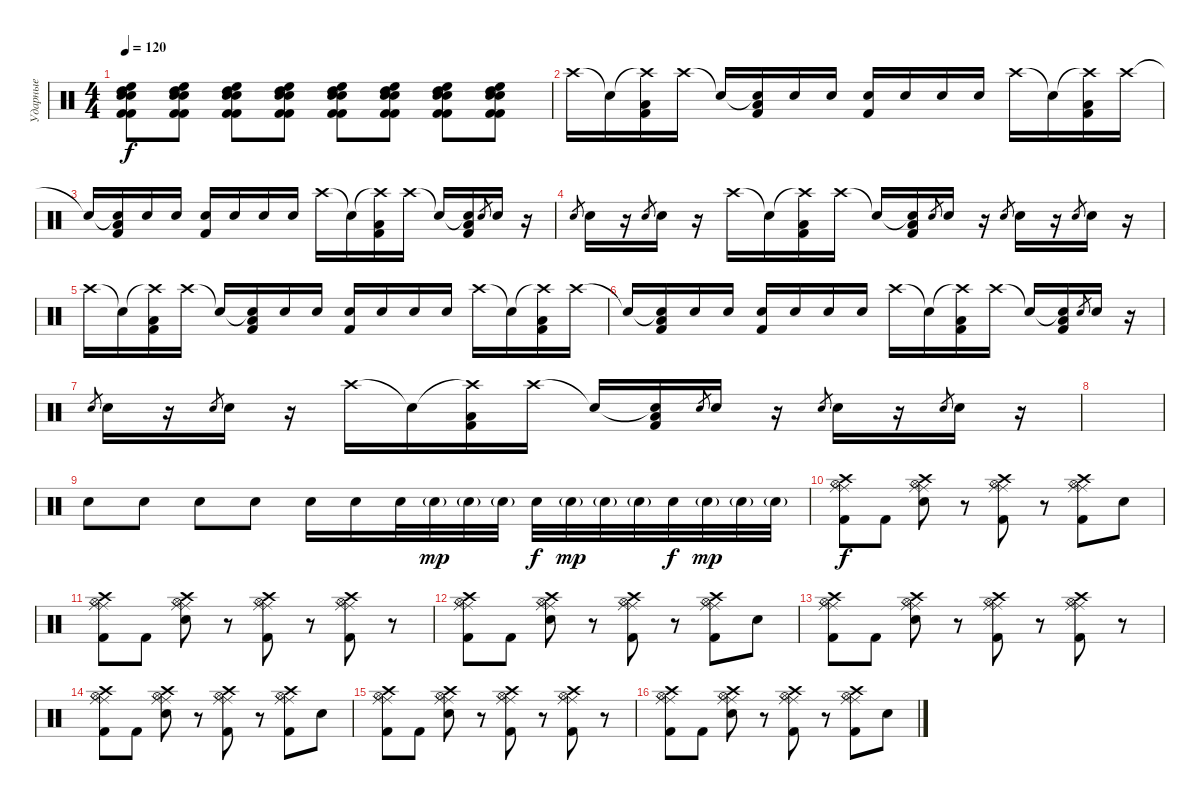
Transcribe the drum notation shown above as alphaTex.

\track ("Ударные" "Ударные") {instrument percussion}
\staff {score}
\articulation defaults
\ts (4 4)
\tempo 120
\clef neutral
\ks c
("Kick (hit) 2" "Kick (hit) 2" "Electric Snare (hit)" "Electric Snare (hit)" "High Tom (hit)" "High Floor Tom (hit)").8{dy f} ("Kick (hit) 2" "Kick (hit) 2" "Electric Snare (hit)" "Electric Snare (hit)" "High Tom (hit)" "High Floor Tom (hit)").8 ("Kick (hit) 2" "Kick (hit) 2" "Electric Snare (hit)" "Electric Snare (hit)" "High Tom (hit)" "High Floor Tom (hit)").8 ("Kick (hit) 2" "Kick (hit) 2" "Electric Snare (hit)" "Electric Snare (hit)" "High Tom (hit)" "High Floor Tom (hit)").8 ("Kick (hit) 2" "Kick (hit) 2" "Electric Snare (hit)" "Electric Snare (hit)" "High Tom (hit)" "High Floor Tom (hit)").8 ("Kick (hit) 2" "Kick (hit) 2" "Electric Snare (hit)" "Electric Snare (hit)" "High Tom (hit)" "High Floor Tom (hit)").8 ("Kick (hit) 2" "Kick (hit) 2" "Electric Snare (hit)" "Electric Snare (hit)" "High Tom (hit)" "High Floor Tom (hit)").8 ("Kick (hit) 2" "Kick (hit) 2" "Electric Snare (hit)" "Electric Snare (hit)" "High Tom (hit)" "High Floor Tom (hit)").8 |
"Crash high (hit)".16 "Snare (hit)"{t}.16 ("Crash high (hit)"{t} "Low Floor Tom (hit)" "Kick (hit) 2").16 "Crash high (hit)".16 "Snare (hit)"{t}.16 ("Snare (hit)"{t} "Low Floor Tom (hit)" "Kick (hit) 2").16 "Electric Snare (hit)".16 "Electric Snare (hit)".16 ("Electric Snare (hit)" "Kick (hit) 2").16 "Electric Snare (hit)".16 "Electric Snare (hit)".16 "Electric Snare (hit)".16 "Crash high (hit)".16 "Snare (hit)"{t}.16 ("Crash high (hit)"{t} "Low Floor Tom (hit)" "Kick (hit) 2").16 "Crash high (hit)".16 |
"Snare (hit)"{t}.16 ("Snare (hit)"{t} "Low Floor Tom (hit)" "Kick (hit) 2").16 "Electric Snare (hit)".16 "Electric Snare (hit)".16 ("Electric Snare (hit)" "Kick (hit) 2").16 "Electric Snare (hit)".16 "Electric Snare (hit)".16 "Electric Snare (hit)".16 "Crash high (hit)".16 "Snare (hit)"{t}.16 ("Crash high (hit)"{t} "Low Floor Tom (hit)" "Kick (hit) 2").16 "Crash high (hit)".16 "Snare (hit)"{t}.16 ("Snare (hit)"{t} "Low Floor Tom (hit)" "Kick (hit) 2").16 "Electric Snare (hit)".8{gr} "Electric Snare (hit)".16 r.16 |
"Electric Snare (hit)".8{gr} "Electric Snare (hit)".16 r.16 "Electric Snare (hit)".8{gr} "Electric Snare (hit)".16 r.16 "Crash high (hit)".16 "Snare (hit)"{t}.16 ("Crash high (hit)"{t} "Low Floor Tom (hit)" "Kick (hit) 2").16 "Crash high (hit)".16 "Snare (hit)"{t}.16 ("Snare (hit)"{t} "Low Floor Tom (hit)" "Kick (hit) 2").16 "Electric Snare (hit)".8{gr} "Electric Snare (hit)".16 r.16 "Electric Snare (hit)".8{gr} "Electric Snare (hit)".16 r.16 "Electric Snare (hit)".8{gr} "Electric Snare (hit)".16 r.16 |
"Crash high (hit)".16 "Snare (hit)"{t}.16 ("Crash high (hit)"{t} "Low Floor Tom (hit)" "Kick (hit) 2").16 "Crash high (hit)".16 "Snare (hit)"{t}.16 ("Snare (hit)"{t} "Low Floor Tom (hit)" "Kick (hit) 2").16 "Electric Snare (hit)".16 "Electric Snare (hit)".16 ("Electric Snare (hit)" "Kick (hit) 2").16 "Electric Snare (hit)".16 "Electric Snare (hit)".16 "Electric Snare (hit)".16 "Crash high (hit)".16 "Snare (hit)"{t}.16 ("Crash high (hit)"{t} "Low Floor Tom (hit)" "Kick (hit) 2").16 "Crash high (hit)".16 |
"Snare (hit)"{t}.16 ("Snare (hit)"{t} "Low Floor Tom (hit)" "Kick (hit) 2").16 "Electric Snare (hit)".16 "Electric Snare (hit)".16 ("Electric Snare (hit)" "Kick (hit) 2").16 "Electric Snare (hit)".16 "Electric Snare (hit)".16 "Electric Snare (hit)".16 "Crash high (hit)".16 "Snare (hit)"{t}.16 ("Crash high (hit)"{t} "Low Floor Tom (hit)" "Kick (hit) 2").16 "Crash high (hit)".16 "Snare (hit)"{t}.16 ("Snare (hit)"{t} "Low Floor Tom (hit)" "Kick (hit) 2").16 "Electric Snare (hit)".8{gr} "Electric Snare (hit)".16 r.16 |
"Electric Snare (hit)".8{gr} "Electric Snare (hit)".16 r.16 "Electric Snare (hit)".8{gr} "Electric Snare (hit)".16 r.16 "Crash high (hit)".16 "Snare (hit)"{t}.16 ("Crash high (hit)"{t} "Low Floor Tom (hit)" "Kick (hit) 2").16 "Crash high (hit)".16 "Snare (hit)"{t}.16 ("Snare (hit)"{t} "Low Floor Tom (hit)" "Kick (hit) 2").16 "Electric Snare (hit)".8{gr} "Electric Snare (hit)".16 r.16 "Electric Snare (hit)".8{gr} "Electric Snare (hit)".16 r.16 "Electric Snare (hit)".8{gr} "Electric Snare (hit)".16 r.16 |
|
"Electric Snare (hit)".8 "Electric Snare (hit)".8 "Electric Snare (hit)".8 "Electric Snare (hit)".8 "Electric Snare (hit)".16 "Electric Snare (hit)".16 "Electric Snare (hit)".32 "Electric Snare (hit)"{g}.32{dy mp} "Electric Snare (hit)"{g}.32 "Electric Snare (hit)"{g}.32 "Electric Snare (hit)".32{dy f} "Electric Snare (hit)"{g}.32{dy mp} "Electric Snare (hit)"{g}.32 "Electric Snare (hit)"{g}.32 "Electric Snare (hit)".32{dy f} "Electric Snare (hit)"{g}.32{dy mp} "Electric Snare (hit)"{g}.32 "Electric Snare (hit)"{g}.32 |
("Kick (hit) 2" "Ride (middle)" "Ride (middle)" "Hi-Hat (open)" "Crash high (hit)").8{dy f} "Kick (hit) 2".8 ("Electric Snare (hit)" "Ride (middle)" "Ride (middle)" "Hi-Hat (open)" "Crash high (hit)").8 r.8 ("Kick (hit) 2" "Ride (middle)" "Ride (middle)" "Hi-Hat (open)" "Crash high (hit)").8 r.8 ("Kick (hit) 2" "Ride (middle)" "Ride (middle)" "Hi-Hat (open)" "Crash high (hit)").8 "Electric Snare (hit)".8 |
("Kick (hit) 2" "Ride (middle)" "Ride (middle)" "Hi-Hat (open)" "Crash high (hit)").8 "Kick (hit) 2".8 ("Electric Snare (hit)" "Ride (middle)" "Ride (middle)" "Hi-Hat (open)" "Crash high (hit)").8 r.8 ("Kick (hit) 2" "Ride (middle)" "Ride (middle)" "Hi-Hat (open)" "Crash high (hit)").8 r.8 ("Kick (hit) 2" "Ride (middle)" "Ride (middle)" "Hi-Hat (open)" "Crash high (hit)").8 r.8 |
("Kick (hit) 2" "Ride (middle)" "Ride (middle)" "Hi-Hat (open)" "Crash high (hit)").8 "Kick (hit) 2".8 ("Electric Snare (hit)" "Ride (middle)" "Ride (middle)" "Hi-Hat (open)" "Crash high (hit)").8 r.8 ("Kick (hit) 2" "Ride (middle)" "Ride (middle)" "Hi-Hat (open)" "Crash high (hit)").8 r.8 ("Kick (hit) 2" "Ride (middle)" "Ride (middle)" "Hi-Hat (open)" "Crash high (hit)").8 "Electric Snare (hit)".8 |
("Kick (hit) 2" "Ride (middle)" "Ride (middle)" "Hi-Hat (open)" "Crash high (hit)").8 "Kick (hit) 2".8 ("Electric Snare (hit)" "Ride (middle)" "Ride (middle)" "Hi-Hat (open)" "Crash high (hit)").8 r.8 ("Kick (hit) 2" "Ride (middle)" "Ride (middle)" "Hi-Hat (open)" "Crash high (hit)").8 r.8 ("Kick (hit) 2" "Ride (middle)" "Ride (middle)" "Hi-Hat (open)" "Crash high (hit)").8 r.8 |
("Kick (hit) 2" "Ride (middle)" "Ride (middle)" "Hi-Hat (open)" "Crash high (hit)").8 "Kick (hit) 2".8 ("Electric Snare (hit)" "Ride (middle)" "Ride (middle)" "Hi-Hat (open)" "Crash high (hit)").8 r.8 ("Kick (hit) 2" "Ride (middle)" "Ride (middle)" "Hi-Hat (open)" "Crash high (hit)").8 r.8 ("Kick (hit) 2" "Ride (middle)" "Ride (middle)" "Hi-Hat (open)" "Crash high (hit)").8 "Electric Snare (hit)".8 |
("Kick (hit) 2" "Ride (middle)" "Ride (middle)" "Hi-Hat (open)" "Crash high (hit)").8 "Kick (hit) 2".8 ("Electric Snare (hit)" "Ride (middle)" "Ride (middle)" "Hi-Hat (open)" "Crash high (hit)").8 r.8 ("Kick (hit) 2" "Ride (middle)" "Ride (middle)" "Hi-Hat (open)" "Crash high (hit)").8 r.8 ("Kick (hit) 2" "Ride (middle)" "Ride (middle)" "Hi-Hat (open)" "Crash high (hit)").8 r.8 |
("Kick (hit) 2" "Ride (middle)" "Ride (middle)" "Hi-Hat (open)" "Crash high (hit)").8 "Kick (hit) 2".8 ("Electric Snare (hit)" "Ride (middle)" "Ride (middle)" "Hi-Hat (open)" "Crash high (hit)").8 r.8 ("Kick (hit) 2" "Ride (middle)" "Ride (middle)" "Hi-Hat (open)" "Crash high (hit)").8 r.8 ("Kick (hit) 2" "Ride (middle)" "Ride (middle)" "Hi-Hat (open)" "Crash high (hit)").8 "Electric Snare (hit)".8
